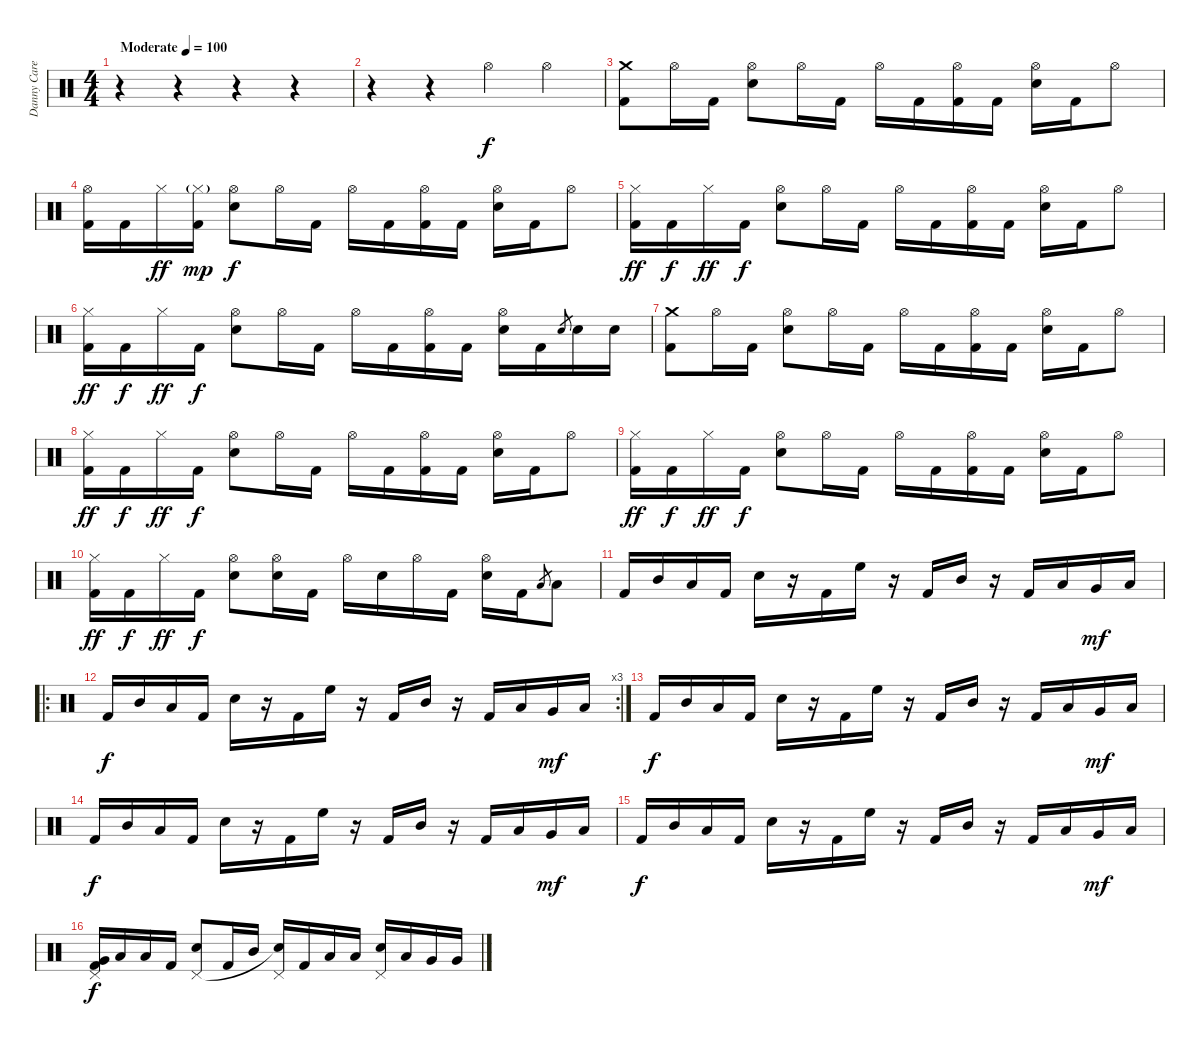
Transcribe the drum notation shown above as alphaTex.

\track ("Danny Carey" "Danny Care") {instrument percussion}
\staff {score}
\articulation defaults
\ts (4 4)
\tempo (100 "Moderate")
\tempo 120
\tempo (100 "Moderate")
\clef neutral
\ks c
r.4{dy f} r.4 r.4 r.4 |
r.4 r.4 "Hi-Hat (open)".4 "Hi-Hat (open)".4 |
("Crash medium (hit)" "Kick (hit) 2").8 "Hi-Hat (open)".16 "Kick (hit) 2".16 ("Hi-Hat (open)" "Snare (hit) 2").8 "Hi-Hat (open)".16 "Kick (hit) 2".16 "Hi-Hat (open)".16 "Kick (hit) 2".16 ("Hi-Hat (open)" "Kick (hit) 2").16 "Kick (hit) 2".16 ("Hi-Hat (open)" "Snare (hit) 2").16 "Kick (hit) 2".16 "Hi-Hat (open)".8 |
("Hi-Hat (open)" "Kick (hit) 2").16 "Kick (hit) 2".16 "Hi-Hat (closed)".16{dy ff} ("Hi-Hat (closed)"{g} "Kick (hit) 2").16{dy mp} ("Hi-Hat (open)" "Snare (hit) 2").8{dy f} "Hi-Hat (open)".16 "Kick (hit) 2".16 "Hi-Hat (open)".16 "Kick (hit) 2".16 ("Hi-Hat (open)" "Kick (hit) 2").16 "Kick (hit) 2".16 ("Hi-Hat (open)" "Snare (hit) 2").16 "Kick (hit) 2".16 "Hi-Hat (open)".8 |
("Hi-Hat (closed)" "Kick (hit) 2").16{dy ff} "Kick (hit) 2".16{dy f} "Hi-Hat (closed)".16{dy ff} "Kick (hit) 2".16{dy f} ("Hi-Hat (open)" "Snare (hit) 2").8 "Hi-Hat (open)".16 "Kick (hit) 2".16 "Hi-Hat (open)".16 "Kick (hit) 2".16 ("Hi-Hat (open)" "Kick (hit) 2").16 "Kick (hit) 2".16 ("Hi-Hat (open)" "Snare (hit) 2").16 "Kick (hit) 2".16 "Hi-Hat (open)".8 |
("Hi-Hat (closed)" "Kick (hit) 2").16{dy ff} "Kick (hit) 2".16{dy f} "Hi-Hat (closed)".16{dy ff} "Kick (hit) 2".16{dy f} ("Hi-Hat (open)" "Snare (hit) 2").8 "Hi-Hat (open)".16 "Kick (hit) 2".16 "Hi-Hat (open)".16 "Kick (hit) 2".16 ("Hi-Hat (open)" "Kick (hit) 2").16 "Kick (hit) 2".16 ("Hi-Hat (open)" "Snare (hit) 2").16 "Kick (hit) 2".16 "Snare (hit) 2".8{gr} "Snare (hit) 2".16 "Snare (hit) 2".16 |
("Crash medium (hit)" "Kick (hit) 2").8 "Hi-Hat (open)".16 "Kick (hit) 2".16 ("Hi-Hat (open)" "Snare (hit) 2").8 "Hi-Hat (open)".16 "Kick (hit) 2".16 "Hi-Hat (open)".16 "Kick (hit) 2".16 ("Hi-Hat (open)" "Kick (hit) 2").16 "Kick (hit) 2".16 ("Hi-Hat (open)" "Snare (hit) 2").16 "Kick (hit) 2".16 "Hi-Hat (open)".8 |
("Hi-Hat (closed)" "Kick (hit) 2").16{dy ff} "Kick (hit) 2".16{dy f} "Hi-Hat (closed)".16{dy ff} "Kick (hit) 2".16{dy f} ("Hi-Hat (open)" "Snare (hit) 2").8 "Hi-Hat (open)".16 "Kick (hit) 2".16 "Hi-Hat (open)".16 "Kick (hit) 2".16 ("Hi-Hat (open)" "Kick (hit) 2").16 "Kick (hit) 2".16 ("Hi-Hat (open)" "Snare (hit) 2").16 "Kick (hit) 2".16 "Hi-Hat (open)".8 |
("Hi-Hat (closed)" "Kick (hit) 2").16{dy ff} "Kick (hit) 2".16{dy f} "Hi-Hat (closed)".16{dy ff} "Kick (hit) 2".16{dy f} ("Hi-Hat (open)" "Snare (hit) 2").8 "Hi-Hat (open)".16 "Kick (hit) 2".16 "Hi-Hat (open)".16 "Kick (hit) 2".16 ("Hi-Hat (open)" "Kick (hit) 2").16 "Kick (hit) 2".16 ("Hi-Hat (open)" "Snare (hit) 2").16 "Kick (hit) 2".16 "Hi-Hat (open)".8 |
("Hi-Hat (closed)" "Kick (hit) 2").16{dy ff} "Kick (hit) 2".16{dy f} "Hi-Hat (closed)".16{dy ff} "Kick (hit) 2".16{dy f} ("Hi-Hat (open)" "Snare (hit) 2").8 ("Hi-Hat (open)" "Snare (hit) 2").16 "Kick (hit) 2".16 "Hi-Hat (open)".16 "Snare (hit) 2".16 "Hi-Hat (open)".16 "Kick (hit) 2".16 ("Hi-Hat (open)" "Snare (hit) 2").16 "Kick (hit) 2".16 "Low Tom (hit)".8{gr} "Low Tom (hit)".8 |
"Kick (hit) 2".16 "Mid Tom (hit)".16 "Low Tom (hit)".16 "Kick (hit) 2".16 "Snare (hit) 2".16 r.16 "Kick (hit) 2".16 "High Floor Tom (hit)".16 r.16 "Kick (hit) 2".16 "Mid Tom (hit)".16 r.16 "Kick (hit) 2".16 "Low Tom (hit)".16 "Very Low Tom (hit)".16{dy mf} "Low Floor Tom (hit)".16 |
\ro
\rc 3 "Kick (hit) 2".16{dy f} "Mid Tom (hit)".16 "Low Tom (hit)".16 "Kick (hit) 2".16 "Snare (hit) 2".16
r.16 "Kick (hit) 2".16 "High Floor Tom (hit)".16 r.16 "Kick (hit) 2".16 "Mid Tom (hit)".16 r.16 "Kick (hit) 2".16 "Low Tom (hit)".16 "Very Low Tom (hit)".16{dy mf} "Low Floor Tom (hit)".16 |
"Kick (hit) 2".16{dy f} "Mid Tom (hit)".16 "Low Tom (hit)".16 "Kick (hit) 2".16 "Snare (hit) 2".16 r.16 "Kick (hit) 2".16 "High Floor Tom (hit)".16 r.16 "Kick (hit) 2".16 "Mid Tom (hit)".16 r.16 "Kick (hit) 2".16 "Low Tom (hit)".16 "Very Low Tom (hit)".16{dy mf} "Low Floor Tom (hit)".16 |
"Kick (hit) 2".16{dy f} "Mid Tom (hit)".16 "Low Tom (hit)".16 "Kick (hit) 2".16 "Snare (hit) 2".16 r.16 "Kick (hit) 2".16 "High Floor Tom (hit)".16 r.16 "Kick (hit) 2".16 "Mid Tom (hit)".16 r.16 "Kick (hit) 2".16 "Low Tom (hit)".16 "Very Low Tom (hit)".16{dy mf} "Low Floor Tom (hit)".16 |
"Kick (hit) 2".16{dy f} "Mid Tom (hit)".16 "Low Tom (hit)".16 "Kick (hit) 2".16 "Snare (hit) 2".16 r.16 "Kick (hit) 2".16 "High Floor Tom (hit)".16 r.16 "Kick (hit) 2".16 "Mid Tom (hit)".16 r.16 "Kick (hit) 2".16 "Low Tom (hit)".16 "Very Low Tom (hit)".16{dy mf} "Low Floor Tom (hit)".16 |
("Pedal Hi-Hat (hit)" "Very Low Tom (hit)" "Kick (hit) 2").16{dy f} "Low Tom (hit)".16 "Low Floor Tom (hit)".16 "Kick (hit) 2".16 ("Snare (hit) 2" "Pedal Hi-Hat (hit)").8 "Kick (hit) 2".16 "Mid Tom (hit)".16 ("Pedal Hi-Hat (hit)" "Snare (hit)"{t}).16 "Kick (hit) 2".16 "Low Tom (hit)".16 "Low Tom (hit)".16 ("Snare (hit) 2" "Pedal Hi-Hat (hit)").16 "Low Tom (hit)".16 "Very Low Tom (hit)".16 "Very Low Tom (hit)".16
